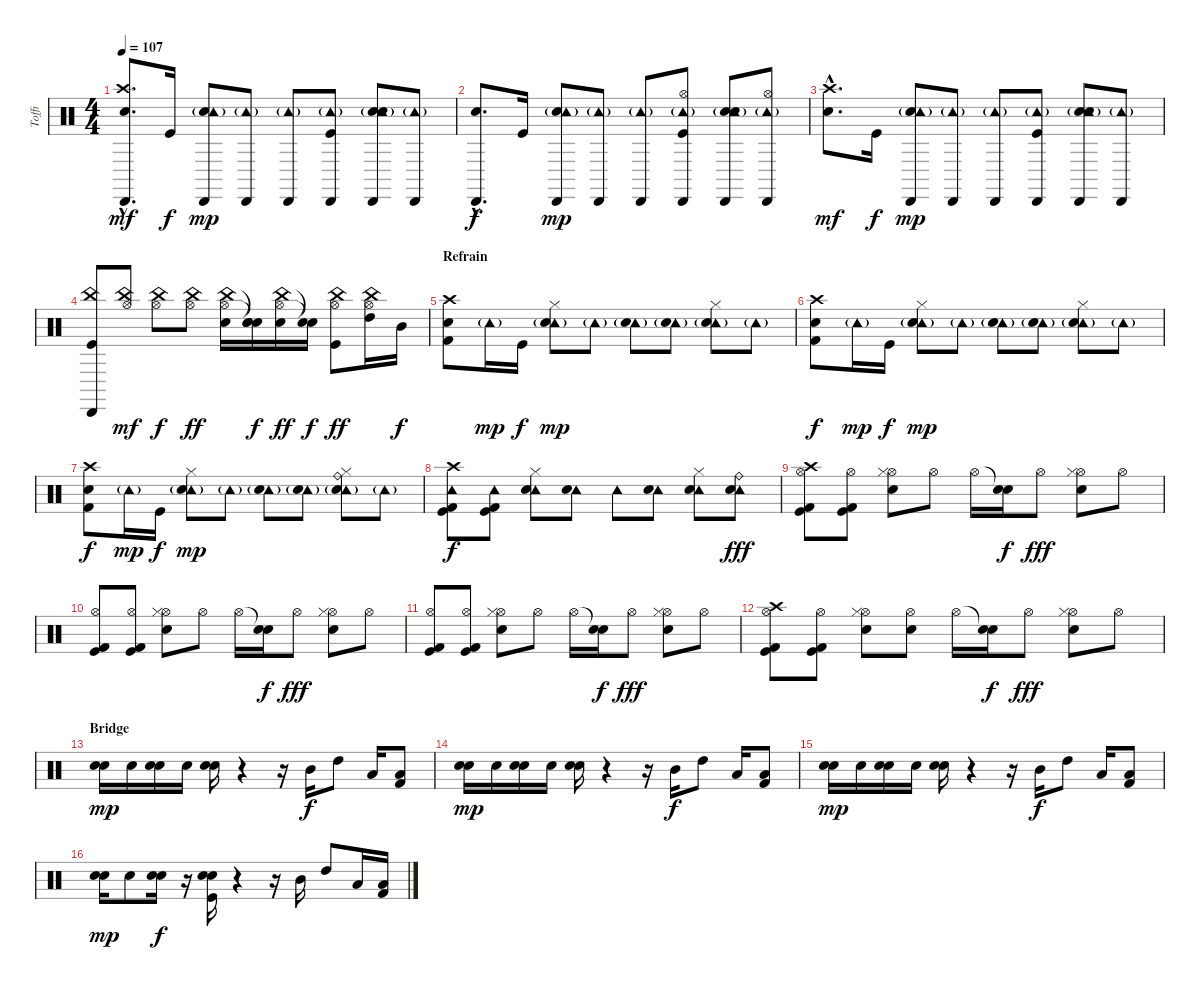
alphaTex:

\track ("Toffi" "Toffi") {instrument percussion}
\staff {score}
\articulation defaults
\ts (4 4)
\tempo 107
\clef neutral
\ks c
("Crash high (hit)"{hac} "Snare (hit) 2"{hac} "Cabasa (hit)"{hac}).8{d dy mf} "Kick (hit)".16{dy f} ("Snare (hit) 2" "Cabasa (hit)" "Tambourine (hit)"{g}).8{dy mp} ("Cabasa (hit)" "Tambourine (hit)"{g}).8 ("Cabasa (hit)" "Tambourine (hit)"{g}).8 ("Kick (hit)" "Cabasa (hit)" "Tambourine (hit)"{g}).8 ("Electric Snare (hit)" "Snare (hit) 2" "Cabasa (hit)" "Tambourine (hit)"{g}).8 ("Cabasa (hit)" "Tambourine (hit)"{g}).8 |
("Snare (hit) 2"{hac} "Cabasa (hit)"{hac}).8{d dy f} "Kick (hit)".16 ("Snare (hit) 2" "Cabasa (hit)" "Tambourine (hit)"{g}).8{dy mp} ("Cabasa (hit)" "Tambourine (hit)"{g}).8 ("Cabasa (hit)" "Tambourine (hit)"{g}).8 ("Hi-Hat (open)" "Kick (hit)" "Cabasa (hit)" "Tambourine (hit)"{g}).8 ("Electric Snare (hit)" "Snare (hit) 2" "Cabasa (hit)" "Tambourine (hit)"{g}).8 ("Hi-Hat (open)" "Cabasa (hit)" "Tambourine (hit)"{g}).8 |
("Crash high (hit)"{hac} "Snare (hit) 2"{hac}).8{d dy mf} "Kick (hit)".16{dy f} ("Snare (hit) 2" "Cabasa (hit)" "Tambourine (hit)"{g}).8{dy mp} ("Cabasa (hit)" "Tambourine (hit)"{g}).8 ("Cabasa (hit)" "Tambourine (hit)"{g}).8 ("Kick (hit)" "Cabasa (hit)" "Tambourine (hit)"{g}).8 ("Electric Snare (hit)" "Snare (hit) 2" "Cabasa (hit)" "Tambourine (hit)"{g}).8 ("Cabasa (hit)" "Tambourine (hit)"{g}).8 |
("China (hit)" "Cabasa (hit)" "Kick (hit)").8 ("China (hit)" "Hi-Hat (open)").8{dy mf} ("China (hit)" "Hi-Hat (open)").8{dy f} ("China (hit)" "Hi-Hat (open)").8{dy ff} ("China (hit)" "Hi-Hat (open)" "Snare (hit) 2").16 ("Snare (hit)"{t} "Snare (hit)"{t} "Electric Snare (hit)").16{dy f} ("China (hit)" "Hi-Hat (open)" "Snare (hit) 2").16{dy ff} ("Snare (hit)"{t} "Snare (hit)"{t}).16{dy f} ("China (hit)" "Hi-Hat (open)" "Kick (hit)").8{dy ff} ("China (hit)" "Hi-Hat (open)" "High Tom (hit)").16 "Mid Tom (hit)".16{dy f} |
\section ("" "Refrain")
("Crash high (hit)" "Kick (hit) 2" "Electric Snare (hit)").8 "Tambourine (hit)"{g}.16{dy mp} "Kick (hit)".16{dy f} ("Tambourine (hit)"{g} "Hi-Hat (closed)" "Snare (hit) 2").8{dy mp} "Tambourine (hit)"{g}.8 ("Tambourine (hit)"{g} "Snare (hit) 2").8 ("Tambourine (hit)"{g} "Electric Snare (hit)").8 ("Tambourine (hit)"{g} "Hi-Hat (closed)" "Snare (hit) 2").8 "Tambourine (hit)"{g}.8 |
("Crash high (hit)" "Kick (hit) 2" "Electric Snare (hit)").8{dy f} "Tambourine (hit)"{g}.16{dy mp} "Kick (hit)".16{dy f} ("Tambourine (hit)"{g} "Hi-Hat (closed)" "Snare (hit) 2").8{dy mp} "Tambourine (hit)"{g}.8 ("Tambourine (hit)"{g} "Snare (hit) 2").8 ("Tambourine (hit)"{g} "Electric Snare (hit)").8 ("Tambourine (hit)"{g} "Hi-Hat (closed)" "Snare (hit) 2").8 "Tambourine (hit)"{g}.8 |
("Crash high (hit)" "Kick (hit) 2" "Electric Snare (hit)").8{dy f} "Tambourine (hit)"{g}.16{dy mp} "Kick (hit)".16{dy f} ("Tambourine (hit)"{g} "Hi-Hat (closed)" "Snare (hit) 2").8{dy mp} "Tambourine (hit)"{g}.8 ("Tambourine (hit)"{g} "Snare (hit) 2").8 ("Tambourine (hit)"{g} "Electric Snare (hit)").8 ("Ride (bell)" "Tambourine (hit)"{g} "Hi-Hat (closed)" "Snare (hit) 2").8 "Tambourine (hit)"{g}.8 |
("Tambourine (hit)" "Crash high (hit)" "Kick (hit) 2" "Kick (hit)").8{dy f} ("Tambourine (hit)" "Kick (hit) 2" "Kick (hit)").8 ("Tambourine (hit)" "Hi-Hat (closed)" "Snare (hit) 2").8 ("Tambourine (hit)" "Electric Snare (hit)").8 "Tambourine (hit)".8 ("Tambourine (hit)" "Snare (hit) 2").8 ("Tambourine (hit)" "Hi-Hat (closed)" "Snare (hit) 2").8 ("Ride (bell)" "Tambourine (hit)" "Electric Snare (hit)").8{dy fff} |
("Hi-Hat (open)" "Crash high (hit)" "Kick (hit) 2" "Kick (hit)").8 ("Hi-Hat (open)" "Kick (hit) 2" "Kick (hit)").8 ("Hi-Hat (open)" "Hi-Hat (closed)" "Snare (hit) 2").8 "Hi-Hat (open)".8 "Hi-Hat (open)".16 ("Snare (hit)"{t} "Snare (hit) 2").16{dy f} "Hi-Hat (open)".8{dy fff} ("Hi-Hat (open)" "Hi-Hat (closed)" "Snare (hit) 2").8 "Hi-Hat (open)".8 |
("Hi-Hat (open)" "Kick (hit) 2" "Kick (hit)").8 ("Hi-Hat (open)" "Kick (hit) 2" "Kick (hit)").8 ("Hi-Hat (open)" "Hi-Hat (closed)" "Snare (hit) 2").8 "Hi-Hat (open)".8 "Hi-Hat (open)".16 ("Snare (hit)"{t} "Snare (hit) 2").16{dy f} "Hi-Hat (open)".8{dy fff} ("Hi-Hat (open)" "Hi-Hat (closed)" "Snare (hit) 2").8 "Hi-Hat (open)".8 |
("Hi-Hat (open)" "Kick (hit) 2" "Kick (hit)").8 ("Hi-Hat (open)" "Kick (hit) 2" "Kick (hit)").8 ("Hi-Hat (open)" "Hi-Hat (closed)" "Snare (hit) 2").8 "Hi-Hat (open)".8 "Hi-Hat (open)".16 ("Snare (hit)"{t} "Snare (hit) 2").16{dy f} "Hi-Hat (open)".8{dy fff} ("Hi-Hat (open)" "Hi-Hat (closed)" "Snare (hit) 2").8 "Hi-Hat (open)".8 |
("Hi-Hat (open)" "Crash high (hit)" "Kick (hit) 2" "Kick (hit)").8 ("Hi-Hat (open)" "Kick (hit) 2" "Kick (hit)").8 ("Hi-Hat (open)" "Hi-Hat (closed)" "Snare (hit) 2").8 ("Hi-Hat (open)" "Electric Snare (hit)").8 "Hi-Hat (open)".16 ("Snare (hit)"{t} "Snare (hit) 2").16{dy f} "Hi-Hat (open)".8{dy fff} ("Hi-Hat (open)" "Hi-Hat (closed)" "Snare (hit) 2").8 "Hi-Hat (open)".8 |
\section ("" "Bridge")
("Snare (hit) 2" "Electric Snare (hit)").16{dy mp} "Snare (hit) 2".16 ("Snare (hit) 2" "Electric Snare (hit)").16 "Snare (hit) 2".16 ("Snare (hit) 2" "Electric Snare (hit)").16 r.4 r.16 "Mid Tom (hit)".16{dy f} "High Tom (hit)".8 "Low Tom (hit)".16 ("Low Tom (hit)" "Kick (hit) 2").8 |
("Snare (hit) 2" "Electric Snare (hit)").16{dy mp} "Snare (hit) 2".16 ("Snare (hit) 2" "Electric Snare (hit)").16 "Snare (hit) 2".16 ("Snare (hit) 2" "Electric Snare (hit)").16 r.4 r.16 "Mid Tom (hit)".16{dy f} "High Tom (hit)".8 "Low Tom (hit)".16 ("Low Tom (hit)" "Kick (hit) 2").8 |
("Snare (hit) 2" "Electric Snare (hit)").16{dy mp} "Snare (hit) 2".16 ("Snare (hit) 2" "Electric Snare (hit)").16 "Snare (hit) 2".16 ("Snare (hit) 2" "Electric Snare (hit)").16 r.4 r.16 "Mid Tom (hit)".16{dy f} "High Tom (hit)".8 "Low Tom (hit)".16 ("Low Tom (hit)" "Kick (hit) 2").8 |
("Snare (hit) 2" "Electric Snare (hit)").16{dy mp} "Snare (hit) 2".8 ("Snare (hit) 2" "Electric Snare (hit)").16{dy f} r.16 ("Snare (hit) 2" "Electric Snare (hit)" "Kick (hit)").16 r.4 r.16 "Mid Tom (hit)".16 "High Tom (hit)".8 "Low Tom (hit)".16 ("Low Tom (hit)" "Kick (hit) 2").16
